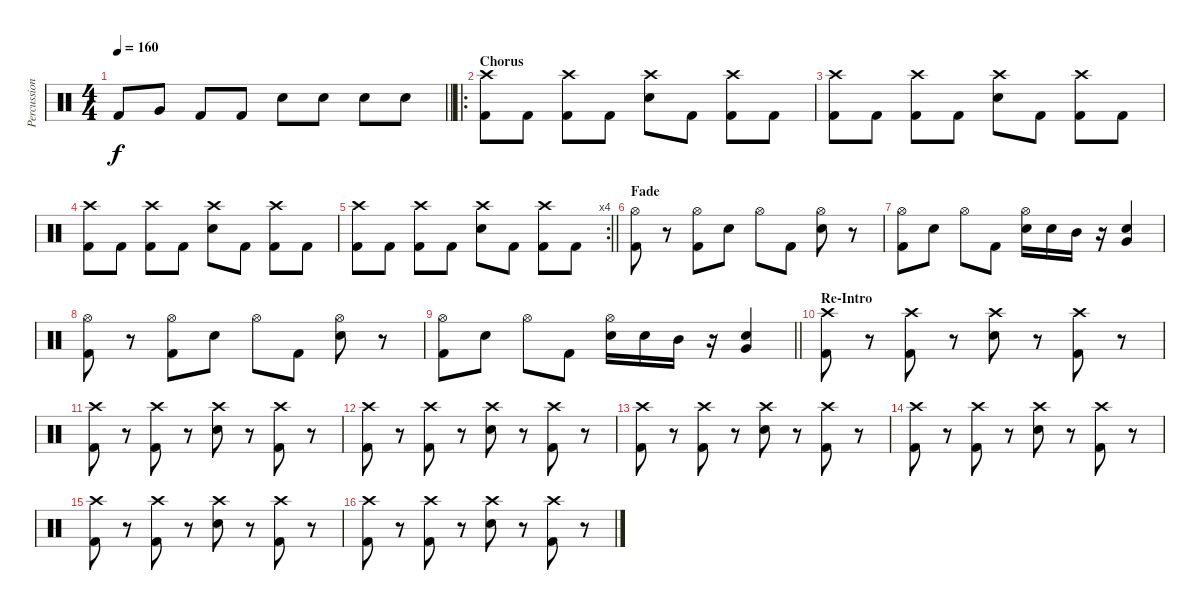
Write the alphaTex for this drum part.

\track ("Percussion" "Percussion") {instrument percussion}
\staff {score}
\articulation defaults
\ts (4 4)
\tempo 160
\clef neutral
\barLineRight lightlight
\ks c "Kick (hit) 2".8{dy f} "Very Low Tom (hit)".8 "Kick (hit) 2".8 "Kick (hit) 2".8 "Electric Snare (hit)".8 "Electric Snare (hit)".8 "Electric Snare (hit)".8 "Electric Snare (hit)".8
|
\ro
\section ("" "Chorus")
("Crash high (hit)" "Kick (hit) 2").8 "Kick (hit) 2".8 ("Crash high (hit)" "Kick (hit) 2").8 "Kick (hit) 2".8 ("Crash high (hit)" "Electric Snare (hit)").8 "Kick (hit) 2".8 ("Crash high (hit)" "Kick (hit) 2").8 "Kick (hit) 2".8 |
("Crash high (hit)" "Kick (hit) 2").8 "Kick (hit) 2".8 ("Crash high (hit)" "Kick (hit) 2").8 "Kick (hit) 2".8 ("Crash high (hit)" "Electric Snare (hit)").8 "Kick (hit) 2".8 ("Crash high (hit)" "Kick (hit) 2").8 "Kick (hit) 2".8 |
("Crash high (hit)" "Kick (hit) 2").8 "Kick (hit) 2".8 ("Crash high (hit)" "Kick (hit) 2").8 "Kick (hit) 2".8 ("Crash high (hit)" "Electric Snare (hit)").8 "Kick (hit) 2".8 ("Crash high (hit)" "Kick (hit) 2").8 "Kick (hit) 2".8 |
\rc 4
\barLineRight lightlight
("Crash high (hit)" "Kick (hit) 2").8 "Kick (hit) 2".8 ("Crash high (hit)" "Kick (hit) 2").8 "Kick (hit) 2".8 ("Crash high (hit)" "Electric Snare (hit)").8 "Kick (hit) 2".8 ("Crash high (hit)" "Kick (hit) 2").8 "Kick (hit) 2".8 |
\section ("" "Fade")
("Hi-Hat (open)" "Kick (hit) 2").8 r.8 ("Hi-Hat (open)" "Kick (hit) 2").8 "Electric Snare (hit)".8 "Hi-Hat (open)".8 "Kick (hit) 2".8 ("Hi-Hat (open)" "Electric Snare (hit)").8 r.8 |
("Hi-Hat (open)" "Kick (hit) 2").8 "Electric Snare (hit)".8 "Hi-Hat (open)".8 "Kick (hit) 2".8 ("Hi-Hat (open)" "Electric Snare (hit)").16 "Electric Snare (hit)".16 "Mid Tom (hit)".16 r.16 ("Very Low Tom (hit)" "Electric Snare (hit)").4 |
("Hi-Hat (open)" "Kick (hit) 2").8 r.8 ("Hi-Hat (open)" "Kick (hit) 2").8 "Electric Snare (hit)".8 "Hi-Hat (open)".8 "Kick (hit) 2".8 ("Hi-Hat (open)" "Electric Snare (hit)").8 r.8 |
\barLineRight lightlight
("Hi-Hat (open)" "Kick (hit) 2").8 "Electric Snare (hit)".8 "Hi-Hat (open)".8 "Kick (hit) 2".8 ("Hi-Hat (open)" "Electric Snare (hit)").16 "Electric Snare (hit)".16 "Mid Tom (hit)".16 r.16 ("Very Low Tom (hit)" "Electric Snare (hit)").4 |
\section ("" "Re-Intro")
("Crash high (hit)" "Kick (hit) 2").8 r.8 ("Crash high (hit)" "Kick (hit) 2").8 r.8 ("Crash high (hit)" "Electric Snare (hit)").8 r.8 ("Crash high (hit)" "Kick (hit) 2").8 r.8 |
("Crash high (hit)" "Kick (hit) 2").8 r.8 ("Crash high (hit)" "Kick (hit) 2").8 r.8 ("Crash high (hit)" "Electric Snare (hit)").8 r.8 ("Crash high (hit)" "Kick (hit) 2").8 r.8 |
("Crash high (hit)" "Kick (hit) 2").8 r.8 ("Crash high (hit)" "Kick (hit) 2").8 r.8 ("Crash high (hit)" "Electric Snare (hit)").8 r.8 ("Crash high (hit)" "Kick (hit) 2").8 r.8 |
("Crash high (hit)" "Kick (hit) 2").8 r.8 ("Crash high (hit)" "Kick (hit) 2").8 r.8 ("Crash high (hit)" "Electric Snare (hit)").8 r.8 ("Crash high (hit)" "Kick (hit) 2").8 r.8 |
("Crash high (hit)" "Kick (hit) 2").8 r.8 ("Crash high (hit)" "Kick (hit) 2").8 r.8 ("Crash high (hit)" "Electric Snare (hit)").8 r.8 ("Crash high (hit)" "Kick (hit) 2").8 r.8 |
("Crash high (hit)" "Kick (hit) 2").8 r.8 ("Crash high (hit)" "Kick (hit) 2").8 r.8 ("Crash high (hit)" "Electric Snare (hit)").8 r.8 ("Crash high (hit)" "Kick (hit) 2").8 r.8 |
("Crash high (hit)" "Kick (hit) 2").8 r.8 ("Crash high (hit)" "Kick (hit) 2").8 r.8 ("Crash high (hit)" "Electric Snare (hit)").8 r.8 ("Crash high (hit)" "Kick (hit) 2").8 r.8
